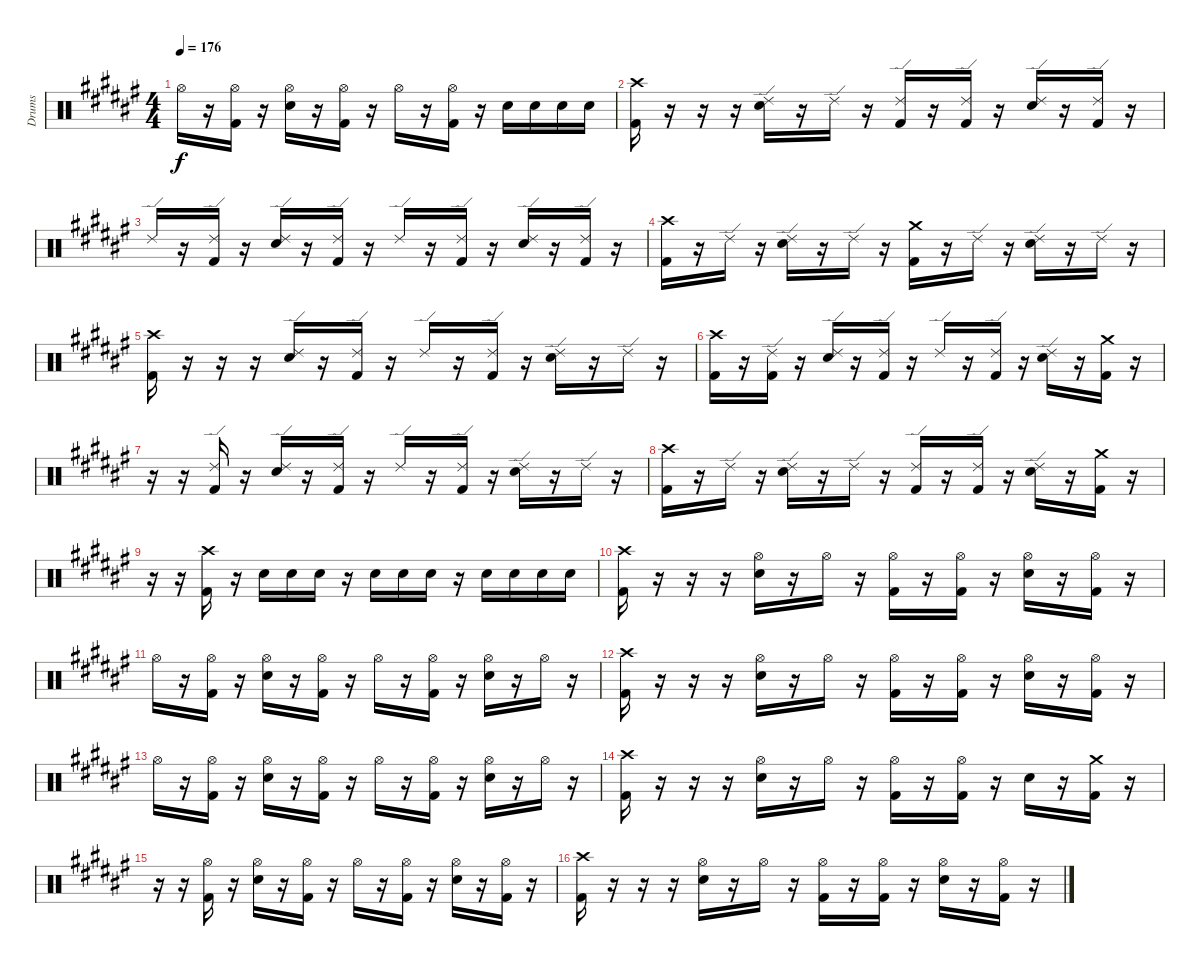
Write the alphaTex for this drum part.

\track ("Drums" "Drums") {instrument percussion}
\staff {score}
\articulation defaults
\ts (4 4)
\tempo 176
\clef neutral
\ks f# "Hi-Hat (open)".16{dy f}
r.16 ("Hi-Hat (open)" "Kick (hit) 2").16 r.16 ("Hi-Hat (open)" "Electric Snare (hit)").16 r.16 ("Hi-Hat (open)" "Kick (hit) 2").16 r.16 "Hi-Hat (open)".16 r.16 ("Hi-Hat (open)" "Kick (hit) 2").16 r.16 "Electric Snare (hit)".16 "Electric Snare (hit)".16 "Electric Snare (hit)".16 "Electric Snare (hit)".16 |
("Crash high (hit)" "Kick (hit) 2").16 r.16 r.16 r.16 ("Ride (edge) 2" "Electric Snare (hit)").16 r.16 "Ride (edge) 2".16 r.16 ("Ride (edge) 2" "Kick (hit) 2").16 r.16 ("Ride (edge) 2" "Kick (hit) 2").16 r.16 ("Ride (edge) 2" "Electric Snare (hit)").16 r.16 ("Ride (edge) 2" "Kick (hit) 2").16 r.16 |
"Ride (edge) 2".16 r.16 ("Ride (edge) 2" "Kick (hit) 2").16 r.16 ("Ride (edge) 2" "Electric Snare (hit)").16 r.16 ("Ride (edge) 2" "Kick (hit) 2").16 r.16 "Ride (edge) 2".16 r.16 ("Ride (edge) 2" "Kick (hit) 2").16 r.16 ("Ride (edge) 2" "Electric Snare (hit)").16 r.16 ("Ride (edge) 2" "Kick (hit) 2").16 r.16 |
("Crash high (hit)" "Kick (hit) 2").16 r.16 "Ride (edge) 2".16 r.16 ("Ride (edge) 2" "Electric Snare (hit)").16 r.16 "Ride (edge) 2".16 r.16 ("Crash medium (hit)" "Kick (hit) 2").16 r.16 "Ride (edge) 2".16 r.16 ("Ride (edge) 2" "Electric Snare (hit)").16 r.16 "Ride (edge) 2".16 r.16 |
("Crash high (hit)" "Kick (hit) 2").16 r.16 r.16 r.16 ("Ride (edge) 2" "Electric Snare (hit)").16 r.16 ("Ride (edge) 2" "Kick (hit) 2").16 r.16 "Ride (edge) 2".16 r.16 ("Ride (edge) 2" "Kick (hit) 2").16 r.16 ("Ride (edge) 2" "Electric Snare (hit)").16 r.16 "Ride (edge) 2".16 r.16 |
("Crash high (hit)" "Kick (hit) 2").16 r.16 ("Ride (edge) 2" "Kick (hit) 2").16 r.16 ("Ride (edge) 2" "Electric Snare (hit)").16 r.16 ("Ride (edge) 2" "Kick (hit) 2").16 r.16 "Ride (edge) 2".16 r.16 ("Ride (edge) 2" "Kick (hit) 2").16 r.16 ("Ride (edge) 2" "Electric Snare (hit)").16 r.16 ("Crash medium (hit)" "Kick (hit) 2").16 r.16 |
r.16 r.16 ("Ride (edge) 2" "Kick (hit) 2").16 r.16 ("Ride (edge) 2" "Electric Snare (hit)").16 r.16 ("Ride (edge) 2" "Kick (hit) 2").16 r.16 "Ride (edge) 2".16 r.16 ("Ride (edge) 2" "Kick (hit) 2").16 r.16 ("Ride (edge) 2" "Electric Snare (hit)").16 r.16 "Ride (edge) 2".16 r.16 |
("Crash high (hit)" "Kick (hit) 2").16 r.16 "Ride (edge) 2".16 r.16 ("Ride (edge) 2" "Electric Snare (hit)").16 r.16 "Ride (edge) 2".16 r.16 ("Ride (edge) 2" "Kick (hit) 2").16 r.16 ("Ride (edge) 2" "Kick (hit) 2").16 r.16 ("Ride (edge) 2" "Electric Snare (hit)").16 r.16 ("Crash medium (hit)" "Kick (hit) 2").16 r.16 |
r.16 r.16 ("Crash high (hit)" "Kick (hit) 2").16 r.16 "Electric Snare (hit)".16 "Electric Snare (hit)".16 "Electric Snare (hit)".16 r.16 "Electric Snare (hit)".16 "Electric Snare (hit)".16 "Electric Snare (hit)".16 r.16 "Electric Snare (hit)".16 "Electric Snare (hit)".16 "Electric Snare (hit)".16 "Electric Snare (hit)".16 |
("Crash high (hit)" "Kick (hit) 2").16 r.16 r.16 r.16 ("Hi-Hat (open)" "Electric Snare (hit)").16 r.16 "Hi-Hat (open)".16 r.16 ("Hi-Hat (open)" "Kick (hit) 2").16 r.16 ("Hi-Hat (open)" "Kick (hit) 2").16 r.16 ("Hi-Hat (open)" "Electric Snare (hit)").16 r.16 ("Hi-Hat (open)" "Kick (hit) 2").16 r.16 |
"Hi-Hat (open)".16 r.16 ("Hi-Hat (open)" "Kick (hit) 2").16 r.16 ("Hi-Hat (open)" "Electric Snare (hit)").16 r.16 ("Hi-Hat (open)" "Kick (hit) 2").16 r.16 "Hi-Hat (open)".16 r.16 ("Hi-Hat (open)" "Kick (hit) 2").16 r.16 ("Hi-Hat (open)" "Electric Snare (hit)").16 r.16 "Hi-Hat (open)".16 r.16 |
("Crash high (hit)" "Kick (hit) 2").16 r.16 r.16 r.16 ("Hi-Hat (open)" "Electric Snare (hit)").16 r.16 "Hi-Hat (open)".16 r.16 ("Hi-Hat (open)" "Kick (hit) 2").16 r.16 ("Hi-Hat (open)" "Kick (hit) 2").16 r.16 ("Hi-Hat (open)" "Electric Snare (hit)").16 r.16 ("Hi-Hat (open)" "Kick (hit) 2").16 r.16 |
"Hi-Hat (open)".16 r.16 ("Hi-Hat (open)" "Kick (hit) 2").16 r.16 ("Hi-Hat (open)" "Electric Snare (hit)").16 r.16 ("Hi-Hat (open)" "Kick (hit) 2").16 r.16 "Hi-Hat (open)".16 r.16 ("Hi-Hat (open)" "Kick (hit) 2").16 r.16 ("Hi-Hat (open)" "Electric Snare (hit)").16 r.16 "Hi-Hat (open)".16 r.16 |
("Crash high (hit)" "Kick (hit) 2").16 r.16 r.16 r.16 ("Hi-Hat (open)" "Electric Snare (hit)").16 r.16 "Hi-Hat (open)".16 r.16 ("Hi-Hat (open)" "Kick (hit) 2").16 r.16 ("Hi-Hat (open)" "Kick (hit) 2").16 r.16 "Electric Snare (hit)".16 r.16 ("Crash medium (hit)" "Kick (hit) 2").16 r.16 |
r.16 r.16 ("Hi-Hat (open)" "Kick (hit) 2").16 r.16 ("Hi-Hat (open)" "Electric Snare (hit)").16 r.16 ("Hi-Hat (open)" "Kick (hit) 2").16 r.16 "Hi-Hat (open)".16 r.16 ("Hi-Hat (open)" "Kick (hit) 2").16 r.16 ("Hi-Hat (open)" "Electric Snare (hit)").16 r.16 ("Hi-Hat (open)" "Kick (hit) 2").16 r.16 |
("Crash high (hit)" "Kick (hit) 2").16 r.16 r.16 r.16 ("Hi-Hat (open)" "Electric Snare (hit)").16 r.16 "Hi-Hat (open)".16 r.16 ("Hi-Hat (open)" "Kick (hit) 2").16 r.16 ("Hi-Hat (open)" "Kick (hit) 2").16 r.16 ("Hi-Hat (open)" "Electric Snare (hit)").16 r.16 ("Hi-Hat (open)" "Kick (hit) 2").16 r.16
